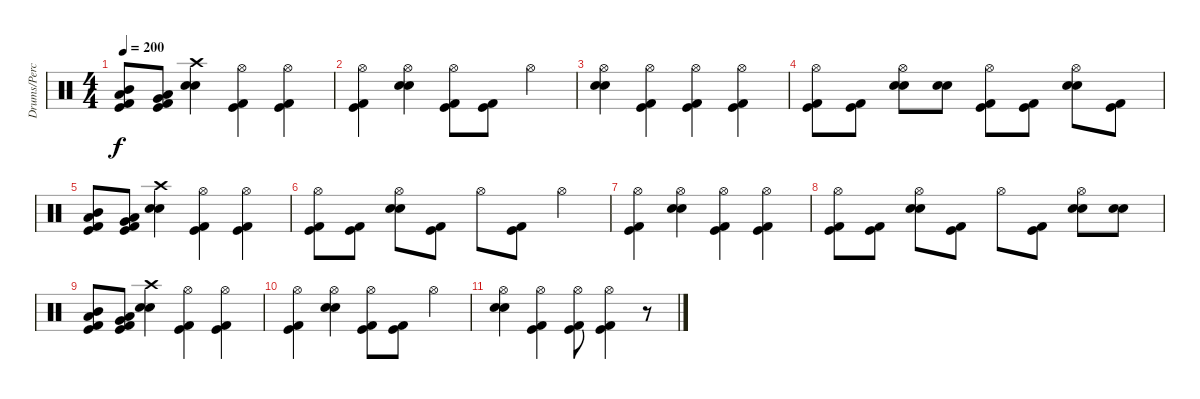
\track ("Drums/Percussion" "Drums/Perc") {instrument percussion}
\staff {score}
\articulation defaults
\ts (4 4)
\tempo 200
\clef neutral
\ks c
("Mid Tom (hit)" "Low Tom (hit)" "Kick (hit)" "Kick (hit) 2").8{dy f} ("Low Tom (hit)" "Very Low Tom (hit)" "Kick (hit)" "Kick (hit) 2").8 ("Crash high (hit)" "Electric Snare (hit)" "Snare (hit) 2").4 ("Hi-Hat (open)" "Kick (hit)" "Kick (hit) 2").4 ("Hi-Hat (open)" "Kick (hit)" "Kick (hit) 2").4 |
("Hi-Hat (open)" "Kick (hit)" "Kick (hit) 2").4 ("Hi-Hat (open)" "Electric Snare (hit)" "Snare (hit) 2").4 ("Hi-Hat (open)" "Kick (hit)" "Kick (hit) 2").8 ("Kick (hit)" "Kick (hit) 2").8 "Hi-Hat (open)".4 |
("Hi-Hat (open)" "Electric Snare (hit)" "Snare (hit) 2").4 ("Hi-Hat (open)" "Kick (hit)" "Kick (hit) 2").4 ("Hi-Hat (open)" "Kick (hit)" "Kick (hit) 2").4 ("Hi-Hat (open)" "Kick (hit)" "Kick (hit) 2").4 |
("Hi-Hat (open)" "Kick (hit)" "Kick (hit) 2").8 ("Kick (hit)" "Kick (hit) 2").8 ("Hi-Hat (open)" "Electric Snare (hit)" "Snare (hit) 2").8 ("Electric Snare (hit)" "Snare (hit) 2").8 ("Hi-Hat (open)" "Kick (hit)" "Kick (hit) 2").8 ("Kick (hit)" "Kick (hit) 2").8 ("Hi-Hat (open)" "Electric Snare (hit)" "Snare (hit) 2").8 ("Kick (hit)" "Kick (hit) 2").8 |
("Mid Tom (hit)" "Low Tom (hit)" "Kick (hit)" "Kick (hit) 2").8 ("Low Tom (hit)" "Very Low Tom (hit)" "Kick (hit)" "Kick (hit) 2").8 ("Crash high (hit)" "Electric Snare (hit)" "Snare (hit) 2").4 ("Hi-Hat (open)" "Kick (hit)" "Kick (hit) 2").4 ("Hi-Hat (open)" "Kick (hit)" "Kick (hit) 2").4 |
("Hi-Hat (open)" "Kick (hit)" "Kick (hit) 2").8 ("Kick (hit)" "Kick (hit) 2").8 ("Hi-Hat (open)" "Electric Snare (hit)" "Snare (hit) 2").8 ("Kick (hit)" "Kick (hit) 2").8 "Hi-Hat (open)".8 ("Kick (hit)" "Kick (hit) 2").8 "Hi-Hat (open)".4 |
("Hi-Hat (open)" "Kick (hit)" "Kick (hit) 2").4 ("Hi-Hat (open)" "Electric Snare (hit)" "Snare (hit) 2").4 ("Hi-Hat (open)" "Kick (hit)" "Kick (hit) 2").4 ("Hi-Hat (open)" "Kick (hit)" "Kick (hit) 2").4 |
("Hi-Hat (open)" "Kick (hit)" "Kick (hit) 2").8 ("Kick (hit)" "Kick (hit) 2").8 ("Hi-Hat (open)" "Electric Snare (hit)" "Snare (hit) 2").8 ("Kick (hit)" "Kick (hit) 2").8 "Hi-Hat (open)".8 ("Kick (hit)" "Kick (hit) 2").8 ("Hi-Hat (open)" "Electric Snare (hit)" "Snare (hit) 2").8 ("Electric Snare (hit)" "Snare (hit) 2").8 |
("Mid Tom (hit)" "Low Tom (hit)" "Kick (hit)" "Kick (hit) 2").8 ("Low Tom (hit)" "Very Low Tom (hit)" "Kick (hit)" "Kick (hit) 2").8 ("Crash high (hit)" "Electric Snare (hit)" "Snare (hit) 2").4 ("Hi-Hat (open)" "Kick (hit)" "Kick (hit) 2").4 ("Hi-Hat (open)" "Kick (hit)" "Kick (hit) 2").4 |
("Hi-Hat (open)" "Kick (hit)" "Kick (hit) 2").4 ("Hi-Hat (open)" "Electric Snare (hit)" "Snare (hit) 2").4 ("Hi-Hat (open)" "Kick (hit)" "Kick (hit) 2").8 ("Kick (hit)" "Kick (hit) 2").8 "Hi-Hat (open)".4 |
("Hi-Hat (open)" "Electric Snare (hit)" "Snare (hit) 2").4 ("Hi-Hat (open)" "Kick (hit)" "Kick (hit) 2").4 ("Hi-Hat (open)" "Kick (hit)" "Kick (hit) 2").8 ("Hi-Hat (open)" "Kick (hit)" "Kick (hit) 2").4 r.8
